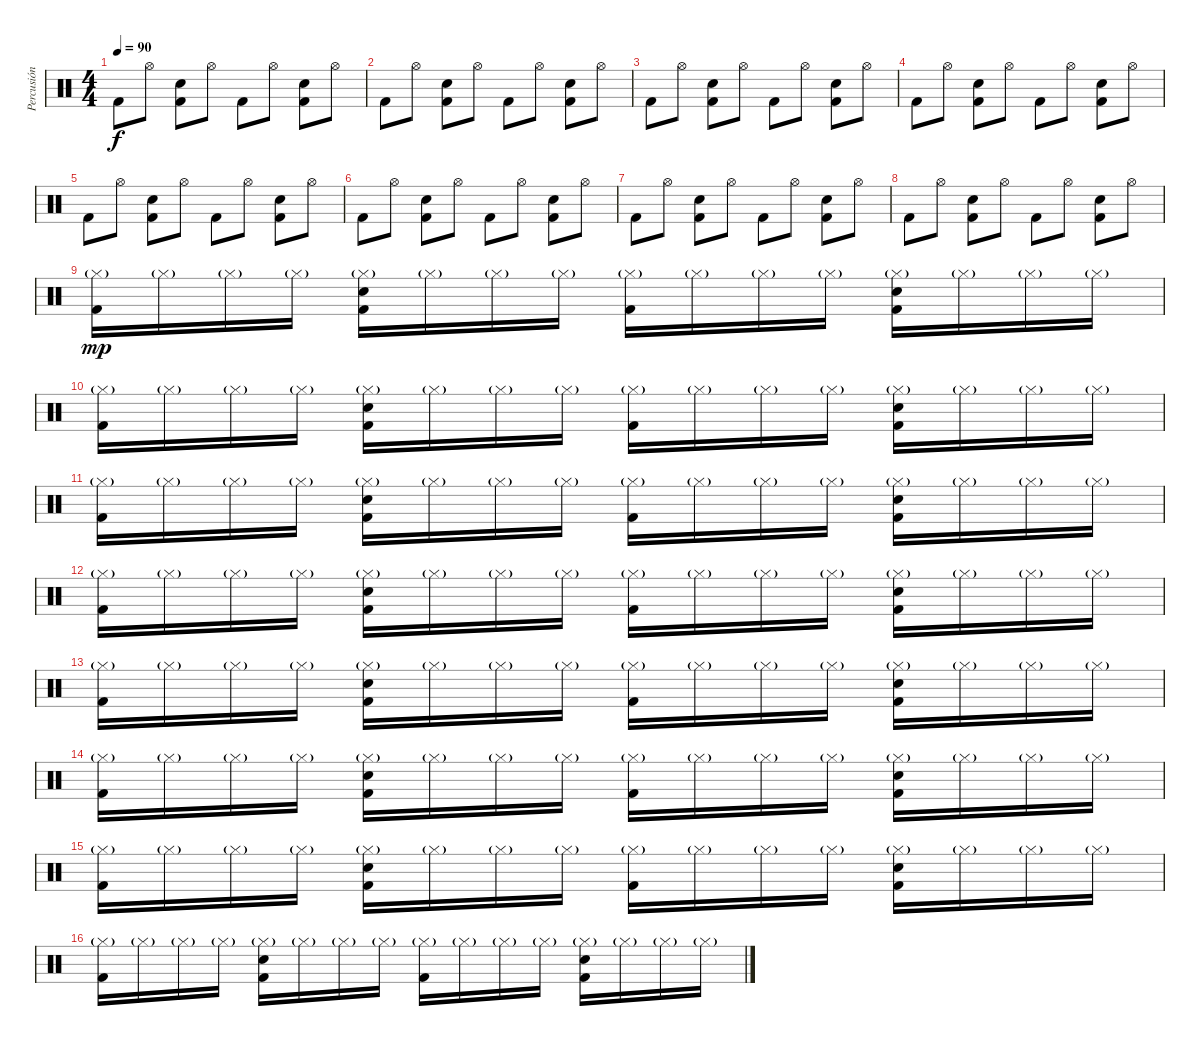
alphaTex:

\track ("Percusión" "Percusión") {instrument percussion}
\staff {score}
\articulation defaults
\ts (4 4)
\tempo 90
\clef neutral
\ks c "Kick (hit) 2".8{dy f} "Hi-Hat (open)".8
("Kick (hit) 2" "Snare (hit) 2").8 "Hi-Hat (open)".8 "Kick (hit) 2".8 "Hi-Hat (open)".8 ("Kick (hit) 2" "Snare (hit) 2").8 "Hi-Hat (open)".8 |
"Kick (hit) 2".8 "Hi-Hat (open)".8 ("Kick (hit) 2" "Snare (hit) 2").8 "Hi-Hat (open)".8 "Kick (hit) 2".8 "Hi-Hat (open)".8 ("Kick (hit) 2" "Snare (hit) 2").8 "Hi-Hat (open)".8 |
"Kick (hit) 2".8 "Hi-Hat (open)".8 ("Kick (hit) 2" "Snare (hit) 2").8 "Hi-Hat (open)".8 "Kick (hit) 2".8 "Hi-Hat (open)".8 ("Kick (hit) 2" "Snare (hit) 2").8 "Hi-Hat (open)".8 |
"Kick (hit) 2".8 "Hi-Hat (open)".8 ("Kick (hit) 2" "Snare (hit) 2").8 "Hi-Hat (open)".8 "Kick (hit) 2".8 "Hi-Hat (open)".8 ("Kick (hit) 2" "Snare (hit) 2").8 "Hi-Hat (open)".8 |
"Kick (hit) 2".8 "Hi-Hat (open)".8 ("Kick (hit) 2" "Snare (hit) 2").8 "Hi-Hat (open)".8 "Kick (hit) 2".8 "Hi-Hat (open)".8 ("Kick (hit) 2" "Snare (hit) 2").8 "Hi-Hat (open)".8 |
"Kick (hit) 2".8 "Hi-Hat (open)".8 ("Kick (hit) 2" "Snare (hit) 2").8 "Hi-Hat (open)".8 "Kick (hit) 2".8 "Hi-Hat (open)".8 ("Kick (hit) 2" "Snare (hit) 2").8 "Hi-Hat (open)".8 |
"Kick (hit) 2".8 "Hi-Hat (open)".8 ("Kick (hit) 2" "Snare (hit) 2").8 "Hi-Hat (open)".8 "Kick (hit) 2".8 "Hi-Hat (open)".8 ("Kick (hit) 2" "Snare (hit) 2").8 "Hi-Hat (open)".8 |
"Kick (hit) 2".8 "Hi-Hat (open)".8 ("Kick (hit) 2" "Snare (hit) 2").8 "Hi-Hat (open)".8 "Kick (hit) 2".8 "Hi-Hat (open)".8 ("Kick (hit) 2" "Snare (hit) 2").8 "Hi-Hat (open)".8 |
("Kick (hit) 2" "Hi-Hat (closed)"{g}).16{dy mp} "Hi-Hat (closed)"{g}.16 "Hi-Hat (closed)"{g}.16 "Hi-Hat (closed)"{g}.16 ("Kick (hit) 2" "Snare (hit) 2" "Hi-Hat (closed)"{g}).16 "Hi-Hat (closed)"{g}.16 "Hi-Hat (closed)"{g}.16 "Hi-Hat (closed)"{g}.16 ("Kick (hit) 2" "Hi-Hat (closed)"{g}).16 "Hi-Hat (closed)"{g}.16 "Hi-Hat (closed)"{g}.16 "Hi-Hat (closed)"{g}.16 ("Kick (hit) 2" "Snare (hit) 2" "Hi-Hat (closed)"{g}).16 "Hi-Hat (closed)"{g}.16 "Hi-Hat (closed)"{g}.16 "Hi-Hat (closed)"{g}.16 |
("Kick (hit) 2" "Hi-Hat (closed)"{g}).16 "Hi-Hat (closed)"{g}.16 "Hi-Hat (closed)"{g}.16 "Hi-Hat (closed)"{g}.16 ("Kick (hit) 2" "Snare (hit) 2" "Hi-Hat (closed)"{g}).16 "Hi-Hat (closed)"{g}.16 "Hi-Hat (closed)"{g}.16 "Hi-Hat (closed)"{g}.16 ("Kick (hit) 2" "Hi-Hat (closed)"{g}).16 "Hi-Hat (closed)"{g}.16 "Hi-Hat (closed)"{g}.16 "Hi-Hat (closed)"{g}.16 ("Kick (hit) 2" "Snare (hit) 2" "Hi-Hat (closed)"{g}).16 "Hi-Hat (closed)"{g}.16 "Hi-Hat (closed)"{g}.16 "Hi-Hat (closed)"{g}.16 |
("Kick (hit) 2" "Hi-Hat (closed)"{g}).16 "Hi-Hat (closed)"{g}.16 "Hi-Hat (closed)"{g}.16 "Hi-Hat (closed)"{g}.16 ("Kick (hit) 2" "Snare (hit) 2" "Hi-Hat (closed)"{g}).16 "Hi-Hat (closed)"{g}.16 "Hi-Hat (closed)"{g}.16 "Hi-Hat (closed)"{g}.16 ("Kick (hit) 2" "Hi-Hat (closed)"{g}).16 "Hi-Hat (closed)"{g}.16 "Hi-Hat (closed)"{g}.16 "Hi-Hat (closed)"{g}.16 ("Kick (hit) 2" "Snare (hit) 2" "Hi-Hat (closed)"{g}).16 "Hi-Hat (closed)"{g}.16 "Hi-Hat (closed)"{g}.16 "Hi-Hat (closed)"{g}.16 |
("Kick (hit) 2" "Hi-Hat (closed)"{g}).16 "Hi-Hat (closed)"{g}.16 "Hi-Hat (closed)"{g}.16 "Hi-Hat (closed)"{g}.16 ("Kick (hit) 2" "Snare (hit) 2" "Hi-Hat (closed)"{g}).16 "Hi-Hat (closed)"{g}.16 "Hi-Hat (closed)"{g}.16 "Hi-Hat (closed)"{g}.16 ("Kick (hit) 2" "Hi-Hat (closed)"{g}).16 "Hi-Hat (closed)"{g}.16 "Hi-Hat (closed)"{g}.16 "Hi-Hat (closed)"{g}.16 ("Kick (hit) 2" "Snare (hit) 2" "Hi-Hat (closed)"{g}).16 "Hi-Hat (closed)"{g}.16 "Hi-Hat (closed)"{g}.16 "Hi-Hat (closed)"{g}.16 |
("Kick (hit) 2" "Hi-Hat (closed)"{g}).16 "Hi-Hat (closed)"{g}.16 "Hi-Hat (closed)"{g}.16 "Hi-Hat (closed)"{g}.16 ("Kick (hit) 2" "Snare (hit) 2" "Hi-Hat (closed)"{g}).16 "Hi-Hat (closed)"{g}.16 "Hi-Hat (closed)"{g}.16 "Hi-Hat (closed)"{g}.16 ("Kick (hit) 2" "Hi-Hat (closed)"{g}).16 "Hi-Hat (closed)"{g}.16 "Hi-Hat (closed)"{g}.16 "Hi-Hat (closed)"{g}.16 ("Kick (hit) 2" "Snare (hit) 2" "Hi-Hat (closed)"{g}).16 "Hi-Hat (closed)"{g}.16 "Hi-Hat (closed)"{g}.16 "Hi-Hat (closed)"{g}.16 |
("Kick (hit) 2" "Hi-Hat (closed)"{g}).16 "Hi-Hat (closed)"{g}.16 "Hi-Hat (closed)"{g}.16 "Hi-Hat (closed)"{g}.16 ("Kick (hit) 2" "Snare (hit) 2" "Hi-Hat (closed)"{g}).16 "Hi-Hat (closed)"{g}.16 "Hi-Hat (closed)"{g}.16 "Hi-Hat (closed)"{g}.16 ("Kick (hit) 2" "Hi-Hat (closed)"{g}).16 "Hi-Hat (closed)"{g}.16 "Hi-Hat (closed)"{g}.16 "Hi-Hat (closed)"{g}.16 ("Kick (hit) 2" "Snare (hit) 2" "Hi-Hat (closed)"{g}).16 "Hi-Hat (closed)"{g}.16 "Hi-Hat (closed)"{g}.16 "Hi-Hat (closed)"{g}.16 |
("Kick (hit) 2" "Hi-Hat (closed)"{g}).16 "Hi-Hat (closed)"{g}.16 "Hi-Hat (closed)"{g}.16 "Hi-Hat (closed)"{g}.16 ("Kick (hit) 2" "Snare (hit) 2" "Hi-Hat (closed)"{g}).16 "Hi-Hat (closed)"{g}.16 "Hi-Hat (closed)"{g}.16 "Hi-Hat (closed)"{g}.16 ("Kick (hit) 2" "Hi-Hat (closed)"{g}).16 "Hi-Hat (closed)"{g}.16 "Hi-Hat (closed)"{g}.16 "Hi-Hat (closed)"{g}.16 ("Kick (hit) 2" "Snare (hit) 2" "Hi-Hat (closed)"{g}).16 "Hi-Hat (closed)"{g}.16 "Hi-Hat (closed)"{g}.16 "Hi-Hat (closed)"{g}.16 |
("Kick (hit) 2" "Hi-Hat (closed)"{g}).16 "Hi-Hat (closed)"{g}.16 "Hi-Hat (closed)"{g}.16 "Hi-Hat (closed)"{g}.16 ("Kick (hit) 2" "Snare (hit) 2" "Hi-Hat (closed)"{g}).16 "Hi-Hat (closed)"{g}.16 "Hi-Hat (closed)"{g}.16 "Hi-Hat (closed)"{g}.16 ("Kick (hit) 2" "Hi-Hat (closed)"{g}).16 "Hi-Hat (closed)"{g}.16 "Hi-Hat (closed)"{g}.16 "Hi-Hat (closed)"{g}.16 ("Kick (hit) 2" "Snare (hit) 2" "Hi-Hat (closed)"{g}).16 "Hi-Hat (closed)"{g}.16 "Hi-Hat (closed)"{g}.16 "Hi-Hat (closed)"{g}.16
